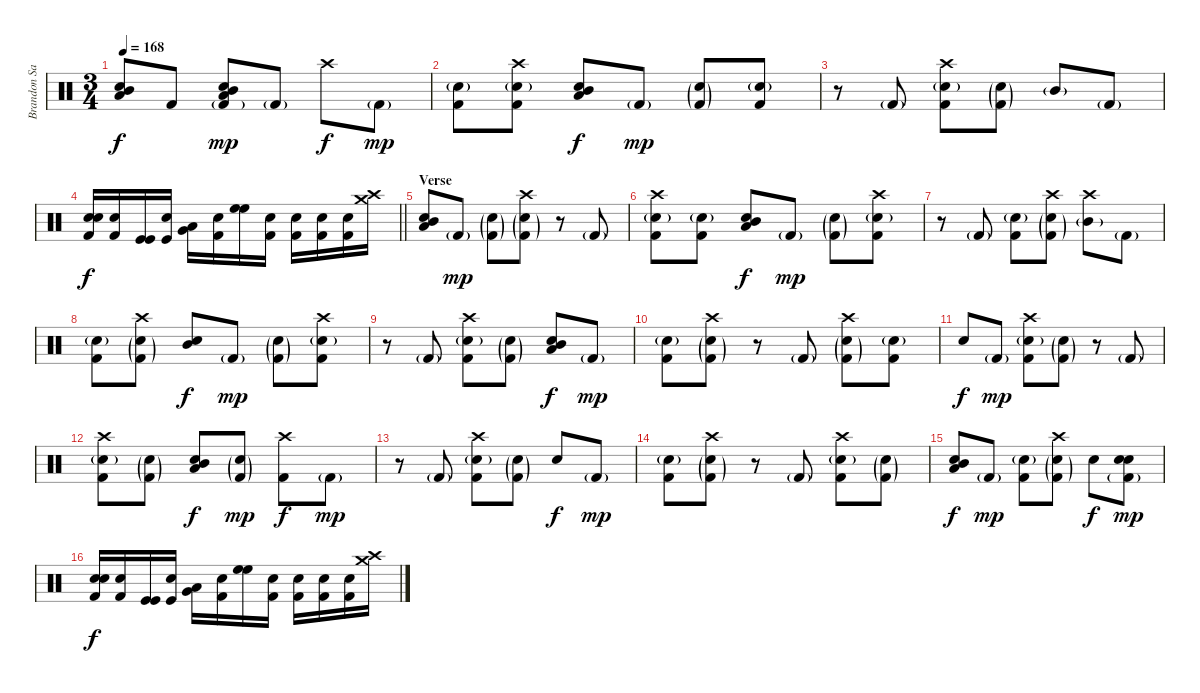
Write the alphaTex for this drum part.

\track ("Brandon Saller" "Brandon Sa") {instrument percussion}
\staff {score}
\articulation defaults
\ts (3 4)
\tempo 168
\clef neutral
\ks c
("Snare (hit) 2" "Low Tom (hit)" "Mid Tom (hit)").8{dy f} "Kick (hit) 2".8 ("Snare (hit) 2" "Low Tom (hit)" "Mid Tom (hit)" "Kick (hit) 2"{g}).8{dy mp} "Kick (hit) 2"{g}.8 "Crash high (hit)".8{dy f} "Kick (hit) 2"{g}.8{dy mp} |
("Snare (hit)"{g} "Kick (hit) 2").8 ("Crash high (hit)" "Snare (hit)"{g} "Kick (hit) 2").8 ("Snare (hit) 2" "Low Tom (hit)" "Mid Tom (hit)").8{dy f} "Kick (hit) 2"{g}.8{dy mp} ("Snare (hit)"{g} "Kick (hit) 2"{g}).8 ("Snare (hit)"{g} "Kick (hit) 2").8 |
r.8 "Kick (hit) 2"{g}.8 ("Crash high (hit)" "Snare (hit)"{g} "Kick (hit) 2").8 ("Snare (hit)"{g} "Kick (hit) 2"{g}).8 "Mid Tom (hit)"{g}.8 "Kick (hit) 2"{g}.8 |
\barLineRight lightlight
("Snare (hit) 2" "Electric Snare (hit)" "Kick (hit) 2").16{dy f} ("Snare (hit) 2" "Kick (hit) 2").16 ("Kick (hit)" "Kick (hit)").16 ("Snare (hit) 2" "Kick (hit)").16 ("Low Tom (hit)" "Very Low Tom (hit)").16 ("Electric Snare (hit)" "Kick (hit) 2").16 ("High Floor Tom (hit)" "High Floor Tom (hit)").16 ("Snare (hit) 2" "Kick (hit) 2").16 ("Snare (hit) 2" "Kick (hit) 2").16 ("Snare (hit) 2" "Kick (hit) 2").16 ("Snare (hit) 2" "Kick (hit) 2").16 ("Crash high (hit)" "Crash medium (hit)").16 |
\section ("" "Verse")
("Snare (hit) 2" "Low Tom (hit)" "Mid Tom (hit)").8 "Kick (hit) 2"{g}.8{dy mp} ("Snare (hit)"{g} "Kick (hit) 2"{g}).8 ("Crash high (hit)" "Snare (hit)"{g} "Kick (hit) 2"{g}).8 r.8 "Kick (hit) 2"{g}.8 |
("Crash high (hit)" "Snare (hit)"{g} "Kick (hit) 2").8 ("Snare (hit)"{g} "Kick (hit) 2").8 ("Snare (hit) 2" "Low Tom (hit)" "Mid Tom (hit)").8{dy f} "Kick (hit) 2"{g}.8{dy mp} ("Snare (hit)"{g} "Kick (hit) 2"{g}).8 ("Crash high (hit)" "Snare (hit)"{g} "Kick (hit) 2").8 |
r.8 "Kick (hit) 2"{g}.8 ("Snare (hit)"{g} "Kick (hit) 2").8 ("Crash high (hit)" "Snare (hit)"{g} "Kick (hit) 2"{g}).8 ("Crash high (hit)" "Mid Tom (hit)"{g}).8 "Kick (hit) 2"{g}.8 |
("Snare (hit)"{g} "Kick (hit) 2").8 ("Crash high (hit)" "Snare (hit)"{g} "Kick (hit) 2"{g}).8 ("Snare (hit) 2" "Mid Tom (hit)").8{dy f} "Kick (hit) 2"{g}.8{dy mp} ("Snare (hit)"{g} "Kick (hit) 2"{g}).8 ("Crash high (hit)" "Snare (hit)"{g} "Kick (hit) 2").8 |
r.8 "Kick (hit) 2"{g}.8 ("Crash high (hit)" "Snare (hit)"{g} "Kick (hit) 2").8 ("Snare (hit)"{g} "Kick (hit) 2"{g}).8 ("Snare (hit) 2" "Low Tom (hit)" "Mid Tom (hit)").8{dy f} "Kick (hit) 2"{g}.8{dy mp} |
("Snare (hit)"{g} "Kick (hit) 2").8 ("Crash high (hit)" "Snare (hit)"{g} "Kick (hit) 2"{g}).8 r.8 "Kick (hit) 2"{g}.8 ("Crash high (hit)" "Snare (hit)"{g} "Kick (hit) 2"{g}).8 ("Snare (hit)"{g} "Kick (hit) 2").8 |
"Snare (hit) 2".8{dy f} "Kick (hit) 2"{g}.8{dy mp} ("Crash high (hit)" "Snare (hit)"{g} "Kick (hit) 2").8 ("Snare (hit)"{g} "Kick (hit) 2"{g}).8 r.8 "Kick (hit) 2"{g}.8 |
("Crash high (hit)" "Snare (hit)"{g} "Kick (hit) 2").8 ("Snare (hit)"{g} "Kick (hit) 2"{g}).8 ("Snare (hit) 2" "Low Tom (hit)" "Mid Tom (hit)").8{dy f} ("Snare (hit)"{g} "Kick (hit) 2"{g}).8{dy mp} ("Crash high (hit)" "Kick (hit) 2").8{dy f} "Kick (hit) 2"{g}.8{dy mp} |
r.8 "Kick (hit) 2"{g}.8 ("Crash high (hit)" "Snare (hit)"{g} "Kick (hit) 2").8 ("Snare (hit)"{g} "Kick (hit) 2"{g}).8 "Snare (hit) 2".8{dy f} "Kick (hit) 2"{g}.8{dy mp} |
("Snare (hit)"{g} "Kick (hit) 2").8 ("Crash high (hit)" "Snare (hit)"{g} "Kick (hit) 2"{g}).8 r.8 "Kick (hit) 2"{g}.8 ("Crash high (hit)" "Snare (hit)"{g} "Kick (hit) 2").8 ("Snare (hit)"{g} "Kick (hit) 2"{g}).8 |
("Snare (hit) 2" "Low Tom (hit)" "Mid Tom (hit)").8{dy f} "Kick (hit) 2"{g}.8{dy mp} ("Snare (hit)"{g} "Kick (hit) 2").8 ("Crash high (hit)" "Snare (hit)"{g} "Kick (hit) 2"{g}).8 "Snare (hit) 2".8{dy f} ("Snare (hit) 2" "Electric Snare (hit)" "Kick (hit) 2"{g}).8{dy mp} |
("Snare (hit) 2" "Electric Snare (hit)" "Kick (hit) 2").16{dy f} ("Snare (hit) 2" "Kick (hit) 2").16 ("Kick (hit)" "Kick (hit)").16 ("Snare (hit) 2" "Kick (hit)").16 ("Low Tom (hit)" "Very Low Tom (hit)").16 ("Electric Snare (hit)" "Kick (hit) 2").16 ("High Floor Tom (hit)" "High Floor Tom (hit)").16 ("Snare (hit) 2" "Kick (hit) 2").16 ("Snare (hit) 2" "Kick (hit) 2").16 ("Snare (hit) 2" "Kick (hit) 2").16 ("Snare (hit) 2" "Kick (hit) 2").16 ("Crash high (hit)" "Crash medium (hit)").16
